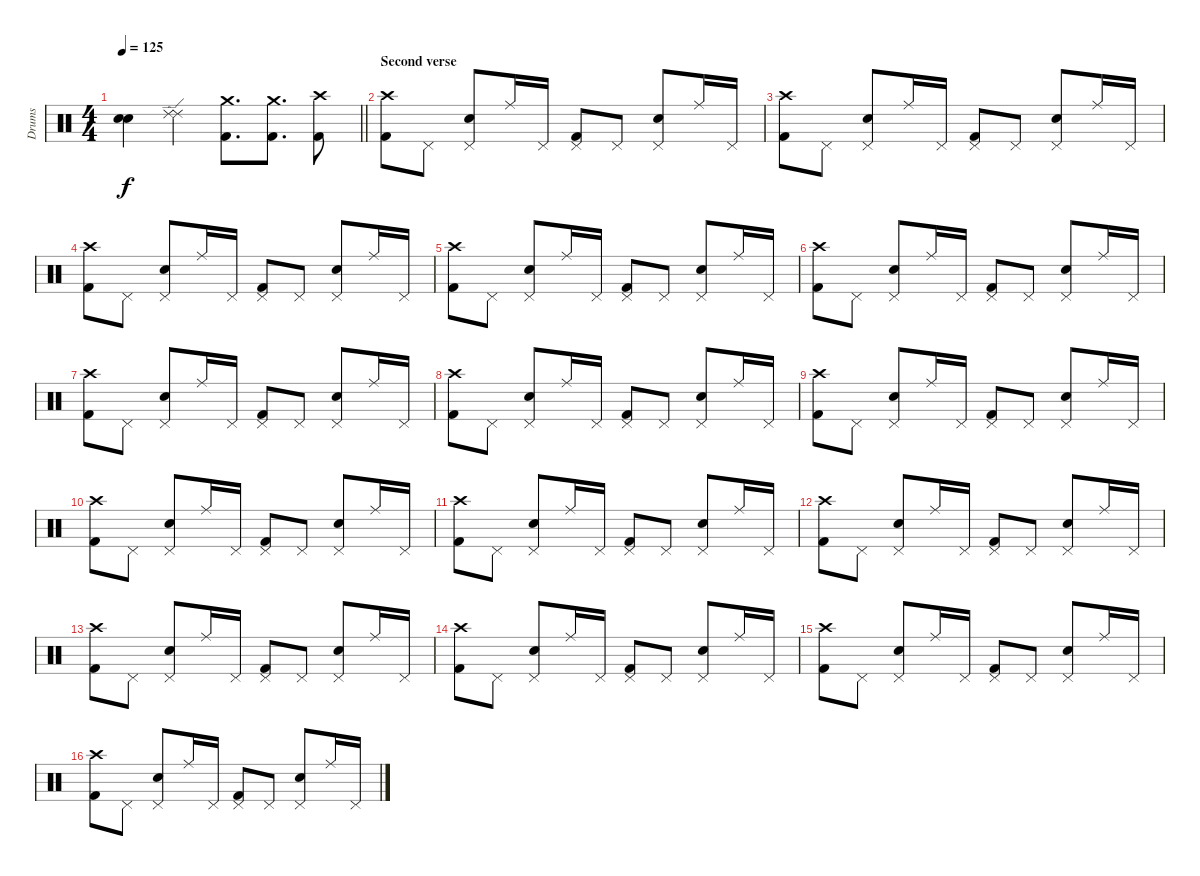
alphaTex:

\track ("Drums" "Drums") {instrument percussion}
\staff {score}
\articulation defaults
\ts (4 4)
\tempo 125
\clef neutral
\barLineRight lightlight
\ks c
("Snare (hit)"{t} "Snare (hit)"{t}).4{dy f} ("Ride (edge) 2" "Ride (edge) 2").4 ("Kick (hit) 2" "Crash medium (hit)").8{d} ("Kick (hit) 2" "Crash medium (hit)").8{d} ("Crash high (hit)" "Kick (hit) 2").8 |
\section ("" "Second verse")
("Crash high (hit)" "Kick (hit) 2").8 "Pedal Hi-Hat (hit)".8 ("Pedal Hi-Hat (hit)" "Snare (hit) 2").8 "Ride (middle)".16 "Pedal Hi-Hat (hit)".16 ("Pedal Hi-Hat (hit)" "Kick (hit) 2").8 "Pedal Hi-Hat (hit)".8 ("Pedal Hi-Hat (hit)" "Snare (hit) 2").8 "Ride (middle)".16 "Pedal Hi-Hat (hit)".16 |
("Crash high (hit)" "Kick (hit) 2").8 "Pedal Hi-Hat (hit)".8 ("Pedal Hi-Hat (hit)" "Snare (hit) 2").8 "Ride (middle)".16 "Pedal Hi-Hat (hit)".16 ("Pedal Hi-Hat (hit)" "Kick (hit) 2").8 "Pedal Hi-Hat (hit)".8 ("Pedal Hi-Hat (hit)" "Snare (hit) 2").8 "Ride (middle)".16 "Pedal Hi-Hat (hit)".16 |
("Crash high (hit)" "Kick (hit) 2").8 "Pedal Hi-Hat (hit)".8 ("Pedal Hi-Hat (hit)" "Snare (hit) 2").8 "Ride (middle)".16 "Pedal Hi-Hat (hit)".16 ("Pedal Hi-Hat (hit)" "Kick (hit) 2").8 "Pedal Hi-Hat (hit)".8 ("Pedal Hi-Hat (hit)" "Snare (hit) 2").8 "Ride (middle)".16 "Pedal Hi-Hat (hit)".16 |
("Crash high (hit)" "Kick (hit) 2").8 "Pedal Hi-Hat (hit)".8 ("Pedal Hi-Hat (hit)" "Snare (hit) 2").8 "Ride (middle)".16 "Pedal Hi-Hat (hit)".16 ("Pedal Hi-Hat (hit)" "Kick (hit) 2").8 "Pedal Hi-Hat (hit)".8 ("Pedal Hi-Hat (hit)" "Snare (hit) 2").8 "Ride (middle)".16 "Pedal Hi-Hat (hit)".16 |
("Crash high (hit)" "Kick (hit) 2").8 "Pedal Hi-Hat (hit)".8 ("Pedal Hi-Hat (hit)" "Snare (hit) 2").8 "Ride (middle)".16 "Pedal Hi-Hat (hit)".16 ("Pedal Hi-Hat (hit)" "Kick (hit) 2").8 "Pedal Hi-Hat (hit)".8 ("Pedal Hi-Hat (hit)" "Snare (hit) 2").8 "Ride (middle)".16 "Pedal Hi-Hat (hit)".16 |
("Crash high (hit)" "Kick (hit) 2").8 "Pedal Hi-Hat (hit)".8 ("Pedal Hi-Hat (hit)" "Snare (hit) 2").8 "Ride (middle)".16 "Pedal Hi-Hat (hit)".16 ("Pedal Hi-Hat (hit)" "Kick (hit) 2").8 "Pedal Hi-Hat (hit)".8 ("Pedal Hi-Hat (hit)" "Snare (hit) 2").8 "Ride (middle)".16 "Pedal Hi-Hat (hit)".16 |
("Crash high (hit)" "Kick (hit) 2").8 "Pedal Hi-Hat (hit)".8 ("Pedal Hi-Hat (hit)" "Snare (hit) 2").8 "Ride (middle)".16 "Pedal Hi-Hat (hit)".16 ("Pedal Hi-Hat (hit)" "Kick (hit) 2").8 "Pedal Hi-Hat (hit)".8 ("Pedal Hi-Hat (hit)" "Snare (hit) 2").8 "Ride (middle)".16 "Pedal Hi-Hat (hit)".16 |
("Crash high (hit)" "Kick (hit) 2").8 "Pedal Hi-Hat (hit)".8 ("Pedal Hi-Hat (hit)" "Snare (hit) 2").8 "Ride (middle)".16 "Pedal Hi-Hat (hit)".16 ("Pedal Hi-Hat (hit)" "Kick (hit) 2").8 "Pedal Hi-Hat (hit)".8 ("Pedal Hi-Hat (hit)" "Snare (hit) 2").8 "Ride (middle)".16 "Pedal Hi-Hat (hit)".16 |
("Crash high (hit)" "Kick (hit) 2").8 "Pedal Hi-Hat (hit)".8 ("Pedal Hi-Hat (hit)" "Snare (hit) 2").8 "Ride (middle)".16 "Pedal Hi-Hat (hit)".16 ("Pedal Hi-Hat (hit)" "Kick (hit) 2").8 "Pedal Hi-Hat (hit)".8 ("Pedal Hi-Hat (hit)" "Snare (hit) 2").8 "Ride (middle)".16 "Pedal Hi-Hat (hit)".16 |
("Crash high (hit)" "Kick (hit) 2").8 "Pedal Hi-Hat (hit)".8 ("Pedal Hi-Hat (hit)" "Snare (hit) 2").8 "Ride (middle)".16 "Pedal Hi-Hat (hit)".16 ("Pedal Hi-Hat (hit)" "Kick (hit) 2").8 "Pedal Hi-Hat (hit)".8 ("Pedal Hi-Hat (hit)" "Snare (hit) 2").8 "Ride (middle)".16 "Pedal Hi-Hat (hit)".16 |
("Crash high (hit)" "Kick (hit) 2").8 "Pedal Hi-Hat (hit)".8 ("Pedal Hi-Hat (hit)" "Snare (hit) 2").8 "Ride (middle)".16 "Pedal Hi-Hat (hit)".16 ("Pedal Hi-Hat (hit)" "Kick (hit) 2").8 "Pedal Hi-Hat (hit)".8 ("Pedal Hi-Hat (hit)" "Snare (hit) 2").8 "Ride (middle)".16 "Pedal Hi-Hat (hit)".16 |
("Crash high (hit)" "Kick (hit) 2").8 "Pedal Hi-Hat (hit)".8 ("Pedal Hi-Hat (hit)" "Snare (hit) 2").8 "Ride (middle)".16 "Pedal Hi-Hat (hit)".16 ("Pedal Hi-Hat (hit)" "Kick (hit) 2").8 "Pedal Hi-Hat (hit)".8 ("Pedal Hi-Hat (hit)" "Snare (hit) 2").8 "Ride (middle)".16 "Pedal Hi-Hat (hit)".16 |
("Crash high (hit)" "Kick (hit) 2").8 "Pedal Hi-Hat (hit)".8 ("Pedal Hi-Hat (hit)" "Snare (hit) 2").8 "Ride (middle)".16 "Pedal Hi-Hat (hit)".16 ("Pedal Hi-Hat (hit)" "Kick (hit) 2").8 "Pedal Hi-Hat (hit)".8 ("Pedal Hi-Hat (hit)" "Snare (hit) 2").8 "Ride (middle)".16 "Pedal Hi-Hat (hit)".16 |
("Crash high (hit)" "Kick (hit) 2").8 "Pedal Hi-Hat (hit)".8 ("Pedal Hi-Hat (hit)" "Snare (hit) 2").8 "Ride (middle)".16 "Pedal Hi-Hat (hit)".16 ("Pedal Hi-Hat (hit)" "Kick (hit) 2").8 "Pedal Hi-Hat (hit)".8 ("Pedal Hi-Hat (hit)" "Snare (hit) 2").8 "Ride (middle)".16 "Pedal Hi-Hat (hit)".16 |
("Crash high (hit)" "Kick (hit) 2").8 "Pedal Hi-Hat (hit)".8 ("Pedal Hi-Hat (hit)" "Snare (hit) 2").8 "Ride (middle)".16 "Pedal Hi-Hat (hit)".16 ("Pedal Hi-Hat (hit)" "Kick (hit) 2").8 "Pedal Hi-Hat (hit)".8 ("Pedal Hi-Hat (hit)" "Snare (hit) 2").8 "Ride (middle)".16 "Pedal Hi-Hat (hit)".16
